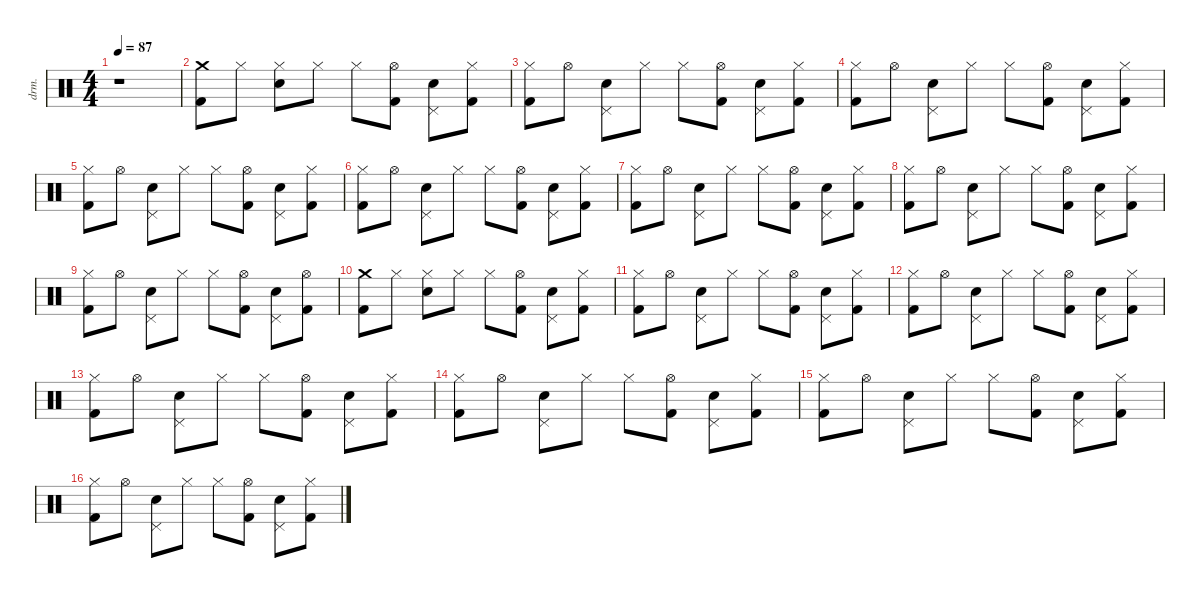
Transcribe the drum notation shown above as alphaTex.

\defaultSystemsLayout 4
\hideDynamics
\bracketExtendMode nobrackets
\otherSystemsTrackNameOrientation horizontal
\track ("Drums" "drm.") {instrument percussion}
\staff {score}
\articulation defaults
\ts (4 4)
\tempo 87
\clef neutral
\ks c
r.1{dy f} |
("Crash medium (hit)" "Kick (hit) 2").8 "Hi-Hat (closed)".8 ("Hi-Hat (closed)" "Snare (hit) 2").8 "Hi-Hat (closed)".8 "Hi-Hat (closed)".8 ("Hi-Hat (open)" "Kick (hit) 2").8 ("Pedal Hi-Hat (hit)" "Snare (hit) 2").8 ("Hi-Hat (closed)" "Kick (hit) 2").8 |
("Hi-Hat (closed)" "Kick (hit) 2").8 "Hi-Hat (open)".8 ("Pedal Hi-Hat (hit)" "Snare (hit) 2").8 "Hi-Hat (closed)".8 "Hi-Hat (closed)".8 ("Hi-Hat (open)" "Kick (hit) 2").8 ("Pedal Hi-Hat (hit)" "Snare (hit) 2").8 ("Hi-Hat (closed)" "Kick (hit) 2").8 |
("Hi-Hat (closed)" "Kick (hit) 2").8 "Hi-Hat (open)".8 ("Pedal Hi-Hat (hit)" "Snare (hit) 2").8 "Hi-Hat (closed)".8 "Hi-Hat (closed)".8 ("Hi-Hat (open)" "Kick (hit) 2").8 ("Pedal Hi-Hat (hit)" "Snare (hit) 2").8 ("Hi-Hat (closed)" "Kick (hit) 2").8 |
("Hi-Hat (closed)" "Kick (hit) 2").8 "Hi-Hat (open)".8 ("Pedal Hi-Hat (hit)" "Snare (hit) 2").8 "Hi-Hat (closed)".8 "Hi-Hat (closed)".8 ("Hi-Hat (open)" "Kick (hit) 2").8 ("Pedal Hi-Hat (hit)" "Snare (hit) 2").8 ("Hi-Hat (closed)" "Kick (hit) 2").8 |
("Hi-Hat (closed)" "Kick (hit) 2").8 "Hi-Hat (open)".8 ("Pedal Hi-Hat (hit)" "Snare (hit) 2").8 "Hi-Hat (closed)".8 "Hi-Hat (closed)".8 ("Hi-Hat (open)" "Kick (hit) 2").8 ("Pedal Hi-Hat (hit)" "Snare (hit) 2").8 ("Hi-Hat (closed)" "Kick (hit) 2").8 |
("Hi-Hat (closed)" "Kick (hit) 2").8 "Hi-Hat (open)".8 ("Pedal Hi-Hat (hit)" "Snare (hit) 2").8 "Hi-Hat (closed)".8 "Hi-Hat (closed)".8 ("Hi-Hat (open)" "Kick (hit) 2").8 ("Pedal Hi-Hat (hit)" "Snare (hit) 2").8 ("Hi-Hat (closed)" "Kick (hit) 2").8 |
("Hi-Hat (closed)" "Kick (hit) 2").8 "Hi-Hat (open)".8 ("Pedal Hi-Hat (hit)" "Snare (hit) 2").8 "Hi-Hat (closed)".8 "Hi-Hat (closed)".8 ("Hi-Hat (open)" "Kick (hit) 2").8 ("Pedal Hi-Hat (hit)" "Snare (hit) 2").8 ("Hi-Hat (closed)" "Kick (hit) 2").8 |
("Hi-Hat (closed)" "Kick (hit) 2").8 "Hi-Hat (open)".8 ("Pedal Hi-Hat (hit)" "Snare (hit) 2").8 "Hi-Hat (closed)".8 "Hi-Hat (closed)".8 ("Hi-Hat (open)" "Kick (hit) 2").8 ("Pedal Hi-Hat (hit)" "Snare (hit) 2").8 ("Hi-Hat (open)" "Kick (hit) 2").8 |
("Crash medium (hit)" "Kick (hit) 2").8 "Hi-Hat (closed)".8 ("Hi-Hat (closed)" "Snare (hit) 2").8 "Hi-Hat (closed)".8 "Hi-Hat (closed)".8 ("Hi-Hat (open)" "Kick (hit) 2").8 ("Pedal Hi-Hat (hit)" "Snare (hit) 2").8 ("Hi-Hat (closed)" "Kick (hit) 2").8 |
("Hi-Hat (closed)" "Kick (hit) 2").8 "Hi-Hat (open)".8 ("Pedal Hi-Hat (hit)" "Snare (hit) 2").8 "Hi-Hat (closed)".8 "Hi-Hat (closed)".8 ("Hi-Hat (open)" "Kick (hit) 2").8 ("Pedal Hi-Hat (hit)" "Snare (hit) 2").8 ("Hi-Hat (closed)" "Kick (hit) 2").8 |
("Hi-Hat (closed)" "Kick (hit) 2").8 "Hi-Hat (open)".8 ("Pedal Hi-Hat (hit)" "Snare (hit) 2").8 "Hi-Hat (closed)".8 "Hi-Hat (closed)".8 ("Hi-Hat (open)" "Kick (hit) 2").8 ("Pedal Hi-Hat (hit)" "Snare (hit) 2").8 ("Hi-Hat (closed)" "Kick (hit) 2").8 |
("Hi-Hat (closed)" "Kick (hit) 2").8 "Hi-Hat (open)".8 ("Pedal Hi-Hat (hit)" "Snare (hit) 2").8 "Hi-Hat (closed)".8 "Hi-Hat (closed)".8 ("Hi-Hat (open)" "Kick (hit) 2").8 ("Pedal Hi-Hat (hit)" "Snare (hit) 2").8 ("Hi-Hat (closed)" "Kick (hit) 2").8 |
("Hi-Hat (closed)" "Kick (hit) 2").8 "Hi-Hat (open)".8 ("Pedal Hi-Hat (hit)" "Snare (hit) 2").8 "Hi-Hat (closed)".8 "Hi-Hat (closed)".8 ("Hi-Hat (open)" "Kick (hit) 2").8 ("Pedal Hi-Hat (hit)" "Snare (hit) 2").8 ("Hi-Hat (closed)" "Kick (hit) 2").8 |
("Hi-Hat (closed)" "Kick (hit) 2").8 "Hi-Hat (open)".8 ("Pedal Hi-Hat (hit)" "Snare (hit) 2").8 "Hi-Hat (closed)".8 "Hi-Hat (closed)".8 ("Hi-Hat (open)" "Kick (hit) 2").8 ("Pedal Hi-Hat (hit)" "Snare (hit) 2").8 ("Hi-Hat (closed)" "Kick (hit) 2").8 |
("Hi-Hat (closed)" "Kick (hit) 2").8 "Hi-Hat (open)".8 ("Pedal Hi-Hat (hit)" "Snare (hit) 2").8 "Hi-Hat (closed)".8 "Hi-Hat (closed)".8 ("Hi-Hat (open)" "Kick (hit) 2").8 ("Pedal Hi-Hat (hit)" "Snare (hit) 2").8 ("Hi-Hat (closed)" "Kick (hit) 2").8
